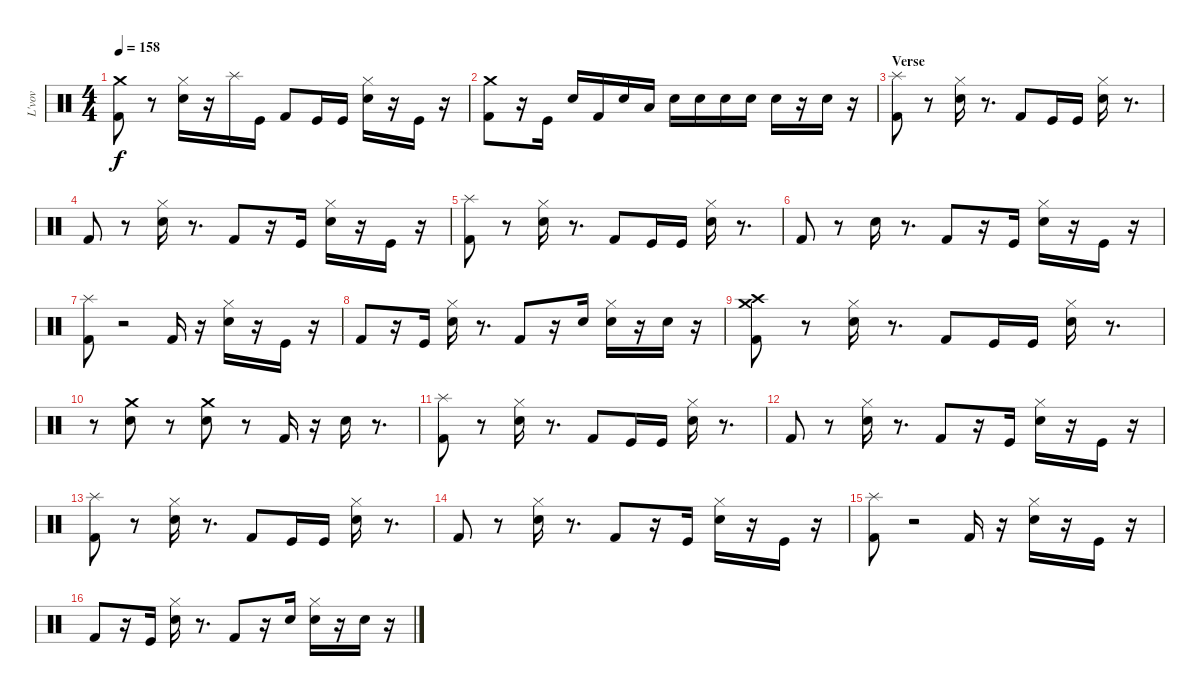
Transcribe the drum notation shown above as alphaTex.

\track ("L'vov " "L'vov ") {instrument percussion}
\staff {score}
\articulation defaults
\ts (4 4)
\tempo 158
\clef neutral
\ks c
("Crash medium (hit)" "Kick (hit) 2").8{dy f} r.8 ("Snare (hit) 2" "Hi-Hat (closed)").16 r.16 "Splash (hit)".16 "Kick (hit)".16 "Kick (hit) 2".8 "Kick (hit)".16 "Kick (hit)".16 ("Snare (hit) 2" "Hi-Hat (closed)").16 r.16 "Kick (hit)".16 r.16 |
("Crash medium (hit)" "Kick (hit) 2").8 r.16 "Kick (hit)".16 "Electric Snare (hit)".16 "Kick (hit) 2".16 "Snare (hit) 2".16 "Low Tom (hit)".16 "Snare (hit) 2".16 "Snare (hit) 2".16 "Snare (hit) 2".16 "Snare (hit) 2".16 "Electric Snare (hit)".16 r.16 "Electric Snare (hit)".16 r.16 |
\section ("" "Verse")
("Splash (hit)" "Kick (hit) 2").8 r.8 ("Snare (hit) 2" "Hi-Hat (closed)").16 r.8{d} "Kick (hit) 2".8 "Kick (hit)".16 "Kick (hit)".16 ("Snare (hit) 2" "Hi-Hat (closed)").16 r.8{d} |
"Kick (hit) 2".8 r.8 ("Snare (hit) 2" "Hi-Hat (closed)").16 r.8{d} "Kick (hit) 2".8 r.16 "Kick (hit)".16 ("Electric Snare (hit)" "Hi-Hat (closed)").16 r.16 "Kick (hit)".16 r.16 |
("Splash (hit)" "Kick (hit) 2").8 r.8 ("Snare (hit) 2" "Hi-Hat (closed)").16 r.8{d} "Kick (hit) 2".8 "Kick (hit)".16 "Kick (hit)".16 ("Snare (hit) 2" "Hi-Hat (closed)").16 r.8{d} |
"Kick (hit) 2".8 r.8 "Snare (hit) 2".16 r.8{d} "Kick (hit) 2".8 r.16 "Kick (hit)".16 ("Electric Snare (hit)" "Hi-Hat (closed)").16 r.16 "Kick (hit)".16 r.16 |
("Splash (hit)" "Kick (hit) 2").8 r.2 "Kick (hit) 2".16 r.16 ("Snare (hit) 2" "Hi-Hat (closed)").16 r.16 "Kick (hit)".16 r.16 |
"Kick (hit) 2".8 r.16 "Kick (hit)".16 ("Snare (hit) 2" "Hi-Hat (closed)").16 r.8{d} "Kick (hit) 2".8 r.16 "Electric Snare (hit)".16 ("Snare (hit) 2" "Hi-Hat (closed)").16 r.16 "Electric Snare (hit)".16 r.16 |
("Crash high (hit)" "Crash medium (hit)" "Kick (hit) 2").8 r.8 ("Snare (hit) 2" "Hi-Hat (closed)").16 r.8{d} "Kick (hit) 2".8 "Kick (hit)".16 "Kick (hit)".16 ("Snare (hit) 2" "Hi-Hat (closed)").16 r.8{d} |
r.8 ("Crash medium (hit)" "Snare (hit) 2").8 r.8 ("Crash medium (hit)" "Snare (hit) 2").8 r.8 "Kick (hit) 2".16 r.16 "Electric Snare (hit)".16 r.8{d} |
("Splash (hit)" "Kick (hit) 2").8 r.8 ("Snare (hit) 2" "Hi-Hat (closed)").16 r.8{d} "Kick (hit) 2".8 "Kick (hit)".16 "Kick (hit)".16 ("Snare (hit) 2" "Hi-Hat (closed)").16 r.8{d} |
"Kick (hit) 2".8 r.8 ("Snare (hit) 2" "Hi-Hat (closed)").16 r.8{d} "Kick (hit) 2".8 r.16 "Kick (hit)".16 ("Electric Snare (hit)" "Hi-Hat (closed)").16 r.16 "Kick (hit)".16 r.16 |
("Splash (hit)" "Kick (hit) 2").8 r.8 ("Snare (hit) 2" "Hi-Hat (closed)").16 r.8{d} "Kick (hit) 2".8 "Kick (hit)".16 "Kick (hit)".16 ("Snare (hit) 2" "Hi-Hat (closed)").16 r.8{d} |
"Kick (hit) 2".8 r.8 ("Snare (hit) 2" "Hi-Hat (closed)").16 r.8{d} "Kick (hit) 2".8 r.16 "Kick (hit)".16 ("Electric Snare (hit)" "Hi-Hat (closed)").16 r.16 "Kick (hit)".16 r.16 |
("Splash (hit)" "Kick (hit) 2").8 r.2 "Kick (hit) 2".16 r.16 ("Snare (hit) 2" "Hi-Hat (closed)").16 r.16 "Kick (hit)".16 r.16 |
"Kick (hit) 2".8 r.16 "Kick (hit)".16 ("Snare (hit) 2" "Hi-Hat (closed)").16 r.8{d} "Kick (hit) 2".8 r.16 "Electric Snare (hit)".16 ("Snare (hit) 2" "Hi-Hat (closed)").16 r.16 "Electric Snare (hit)".16 r.16
